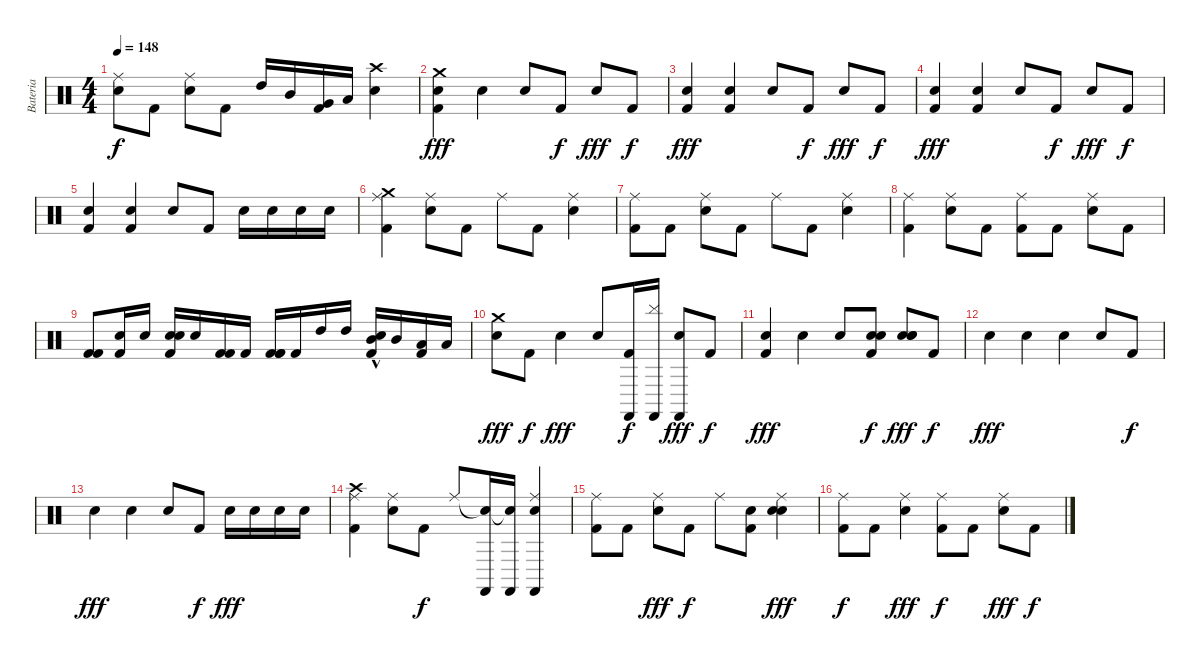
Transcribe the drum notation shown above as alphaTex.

\track ("Bateria" "Bateria") {instrument percussion}
\staff {score}
\articulation defaults
\ts (4 4)
\tempo 148
\clef neutral
\ks c
("Electric Snare (hit)" "Ride (middle)").8{dy f} "Kick (hit) 2".8 ("Electric Snare (hit)" "Ride (middle)").8 "Kick (hit) 2".8 "High Tom (hit)".16 "Mid Tom (hit)".16 ("Very Low Tom (hit)" "Kick (hit) 2").16 "Low Floor Tom (hit)".16 ("Electric Snare (hit)" "Crash high (hit)").4 |
("Crash medium (hit)" "Electric Snare (hit)" "Kick (hit) 2").4{dy fff} "Electric Snare (hit)".4 "Electric Snare (hit)".8 "Kick (hit) 2".8{dy f} "Electric Snare (hit)".8{dy fff} "Kick (hit) 2".8{dy f} |
("Kick (hit) 2" "Electric Snare (hit)").4{dy fff} ("Electric Snare (hit)" "Kick (hit) 2").4 "Electric Snare (hit)".8 "Kick (hit) 2".8{dy f} "Electric Snare (hit)".8{dy fff} "Kick (hit) 2".8{dy f} |
("Electric Snare (hit)" "Kick (hit) 2").4{dy fff} ("Electric Snare (hit)" "Kick (hit) 2").4 "Electric Snare (hit)".8 "Kick (hit) 2".8{dy f} "Electric Snare (hit)".8{dy fff} "Kick (hit) 2".8{dy f} |
("Electric Snare (hit)" "Kick (hit) 2").4 ("Electric Snare (hit)" "Kick (hit) 2").4 "Electric Snare (hit)".8 "Kick (hit) 2".8 "Electric Snare (hit)".16 "Electric Snare (hit)".16 "Electric Snare (hit)".16 "Electric Snare (hit)".16 |
("Crash medium (hit)" "Kick (hit) 2" "Ride (middle)").4 ("Electric Snare (hit)" "Ride (middle)").8 "Kick (hit) 2".8 "Ride (middle)".8 "Kick (hit) 2".8 ("Electric Snare (hit)" "Ride (middle)").4 |
("Kick (hit) 2" "Ride (middle)").8 "Kick (hit) 2".8 ("Electric Snare (hit)" "Ride (middle)").8 "Kick (hit) 2".8 "Ride (middle)".8 "Kick (hit) 2".8 ("Electric Snare (hit)" "Ride (middle)").4 |
("Kick (hit) 2" "Ride (middle)").4 ("Electric Snare (hit)" "Ride (middle)").8 "Kick (hit) 2".8 ("Kick (hit) 2" "Ride (middle)").8 "Kick (hit) 2".8 ("Electric Snare (hit)" "Ride (middle)").8 "Kick (hit) 2".8 |
("Kick (hit) 2" "Kick (hit) 2").8 ("Electric Snare (hit)" "Kick (hit) 2").16 "Electric Snare (hit)".16 ("Snare (hit) 2" "Snare (hit) 2" "Kick (hit) 2").16 "Snare (hit) 2".16 ("Kick (hit) 2" "Kick (hit) 2").16 "Kick (hit) 2".16 ("Kick (hit) 2" "Kick (hit) 2" "Kick (hit) 2").16 "Kick (hit) 2".16 "High Tom (hit)".16 "High Tom (hit)".16 ("Snare (hit) 2"{hac} "Mid Tom (hit)" "Kick (hit) 2").16 "Mid Tom (hit)".16 ("Low Tom (hit)" "Kick (hit) 2").16 "Low Tom (hit)".16 |
("Crash medium (hit)" "Electric Snare (hit)").8{dy fff} "Kick (hit) 2".8{dy f} "Electric Snare (hit)".4{dy fff} "Electric Snare (hit)".8 ("Kick (hit) 2" "Castanets (hit)").16{dy f} ("Cymbal (hit)" "Castanets (hit)").16 ("Electric Snare (hit)" "Castanets (hit)").8{dy fff} "Kick (hit) 2".8{dy f} |
("Kick (hit) 2" "Electric Snare (hit)").4{dy fff} "Electric Snare (hit)".4 "Electric Snare (hit)".8 ("Kick (hit) 2" "Snare (hit)" "Hand Clap (hit)").8{dy f} ("Electric Snare (hit)" "Snare (hit)" "Hand Clap (hit)").8{dy fff} "Kick (hit) 2".8{dy f} |
"Electric Snare (hit)".4{dy fff} "Electric Snare (hit)".4 "Electric Snare (hit)".4 "Electric Snare (hit)".8 "Kick (hit) 2".8{dy f} |
"Electric Snare (hit)".4{dy fff} "Electric Snare (hit)".4 "Electric Snare (hit)".8 "Kick (hit) 2".8{dy f} "Electric Snare (hit)".16{dy fff} "Electric Snare (hit)".16 "Electric Snare (hit)".16 "Electric Snare (hit)".16 |
("Crash high (hit)" "Kick (hit) 2" "Ride (middle)").4 ("Electric Snare (hit)" "Ride (middle)").8 "Kick (hit) 2".8{dy f} "Ride (middle)".8 ("Electric Snare (hit)"{t} "Castanets (hit)").16 ("Electric Snare (hit)"{t} "Castanets (hit)").16 ("Electric Snare (hit)" "Ride (middle)" "Castanets (hit)").4 |
("Kick (hit) 2" "Ride (middle)").8 "Kick (hit) 2".8 ("Electric Snare (hit)" "Ride (middle)").8{dy fff} "Kick (hit) 2".8{dy f} "Ride (middle)".8 ("Kick (hit) 2" "Hand Clap (hit)").8 ("Electric Snare (hit)" "Ride (middle)" "Hand Clap (hit)").4{dy fff} |
("Kick (hit) 2" "Ride (middle)").8{dy f} "Kick (hit) 2".8 ("Electric Snare (hit)" "Ride (middle)").4{dy fff} ("Kick (hit) 2" "Ride (middle)").8{dy f} "Kick (hit) 2".8 ("Electric Snare (hit)" "Ride (middle)").8{dy fff} "Kick (hit) 2".8{dy f}
